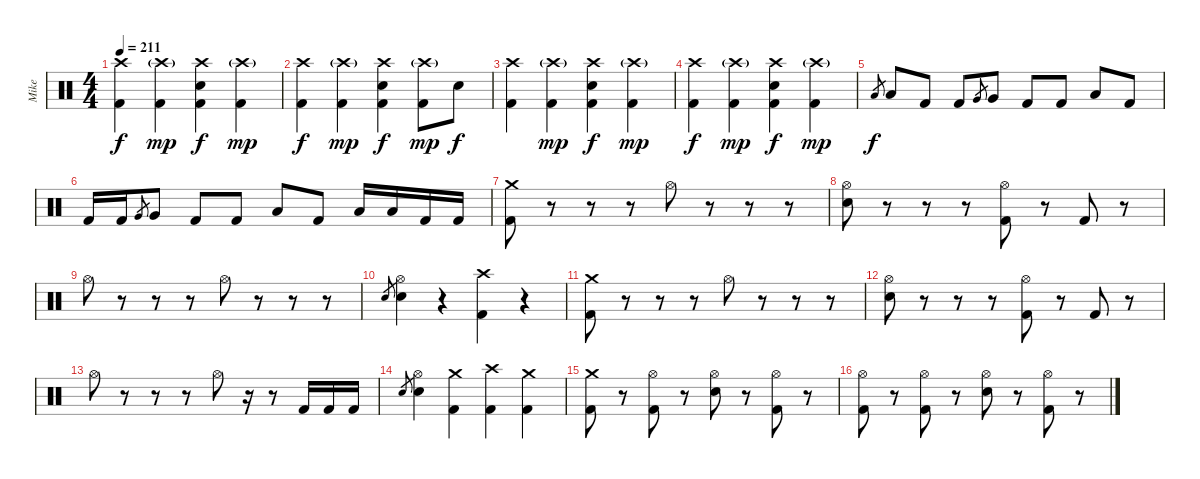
\track ("Mike" "Mike") {instrument percussion}
\staff {score}
\articulation defaults
\ts (4 4)
\tempo 211
\clef neutral
\ks c
("Crash high (hit)" "Kick (hit) 2").4{dy f} ("Crash high (hit)"{g} "Kick (hit) 2").4{dy mp} ("Crash high (hit)" "Electric Snare (hit)" "Kick (hit) 2").4{dy f} ("Crash high (hit)"{g} "Kick (hit) 2").4{dy mp} |
("Crash high (hit)" "Kick (hit) 2").4{dy f} ("Crash high (hit)"{g} "Kick (hit) 2").4{dy mp} ("Crash high (hit)" "Electric Snare (hit)" "Kick (hit) 2").4{dy f} ("Crash high (hit)"{g} "Kick (hit) 2").8{dy mp} "Electric Snare (hit)".8{dy f} |
("Crash high (hit)" "Kick (hit) 2").4 ("Crash high (hit)"{g} "Kick (hit) 2").4{dy mp} ("Crash high (hit)" "Electric Snare (hit)" "Kick (hit) 2").4{dy f} ("Crash high (hit)"{g} "Kick (hit) 2").4{dy mp} |
("Crash high (hit)" "Kick (hit) 2").4{dy f} ("Crash high (hit)"{g} "Kick (hit) 2").4{dy mp} ("Crash high (hit)" "Electric Snare (hit)" "Kick (hit) 2").4{dy f} ("Crash high (hit)"{g} "Kick (hit) 2").4{dy mp} |
"Low Tom (hit)".8{gr dy f} "Low Tom (hit)".8 "Kick (hit) 2".8 "Kick (hit) 2".8 "Very Low Tom (hit)".8{gr} "Very Low Tom (hit)".8 "Kick (hit) 2".8 "Kick (hit) 2".8 "Low Tom (hit)".8 "Kick (hit) 2".8 |
"Kick (hit) 2".16 "Kick (hit) 2".16 "Very Low Tom (hit)".8{gr} "Very Low Tom (hit)".8 "Kick (hit) 2".8 "Kick (hit) 2".8 "Low Tom (hit)".8 "Kick (hit) 2".8 "Low Tom (hit)".16 "Low Tom (hit)".16 "Kick (hit) 2".16 "Kick (hit) 2".16 |
("Crash medium (hit)" "Kick (hit) 2").8 r.8 r.8 r.8 "Hi-Hat (open)".8 r.8 r.8 r.8 |
("Hi-Hat (open)" "Electric Snare (hit)").8 r.8 r.8 r.8 ("Hi-Hat (open)" "Kick (hit) 2").8 r.8 "Kick (hit) 2".8 r.8 |
"Hi-Hat (open)".8 r.8 r.8 r.8 "Hi-Hat (open)".8 r.8 r.8 r.8 |
"Electric Snare (hit)".8{gr} ("Hi-Hat (open)" "Electric Snare (hit)").4 r.4 ("Crash high (hit)" "Kick (hit) 2").4 r.4 |
("Crash medium (hit)" "Kick (hit) 2").8 r.8 r.8 r.8 "Hi-Hat (open)".8 r.8 r.8 r.8 |
("Hi-Hat (open)" "Electric Snare (hit)").8 r.8 r.8 r.8 ("Hi-Hat (open)" "Kick (hit) 2").8 r.8 "Kick (hit) 2".8 r.8 |
"Hi-Hat (open)".8 r.8 r.8 r.8 "Hi-Hat (open)".8 r.16 r.8 "Kick (hit) 2".16 "Kick (hit) 2".16 "Kick (hit) 2".16 |
"Electric Snare (hit)".8{gr} ("Hi-Hat (open)" "Electric Snare (hit)").4 ("Crash medium (hit)" "Kick (hit) 2").4 ("Crash high (hit)" "Kick (hit) 2").4 ("Crash medium (hit)" "Kick (hit) 2").4 |
("Crash medium (hit)" "Kick (hit) 2").8 r.8 ("Hi-Hat (open)" "Kick (hit) 2").8 r.8 ("Hi-Hat (open)" "Electric Snare (hit)").8 r.8 ("Hi-Hat (open)" "Kick (hit) 2").8 r.8 |
("Hi-Hat (open)" "Kick (hit) 2").8 r.8 ("Hi-Hat (open)" "Kick (hit) 2").8 r.8 ("Hi-Hat (open)" "Electric Snare (hit)").8 r.8 ("Hi-Hat (open)" "Kick (hit) 2").8 r.8
